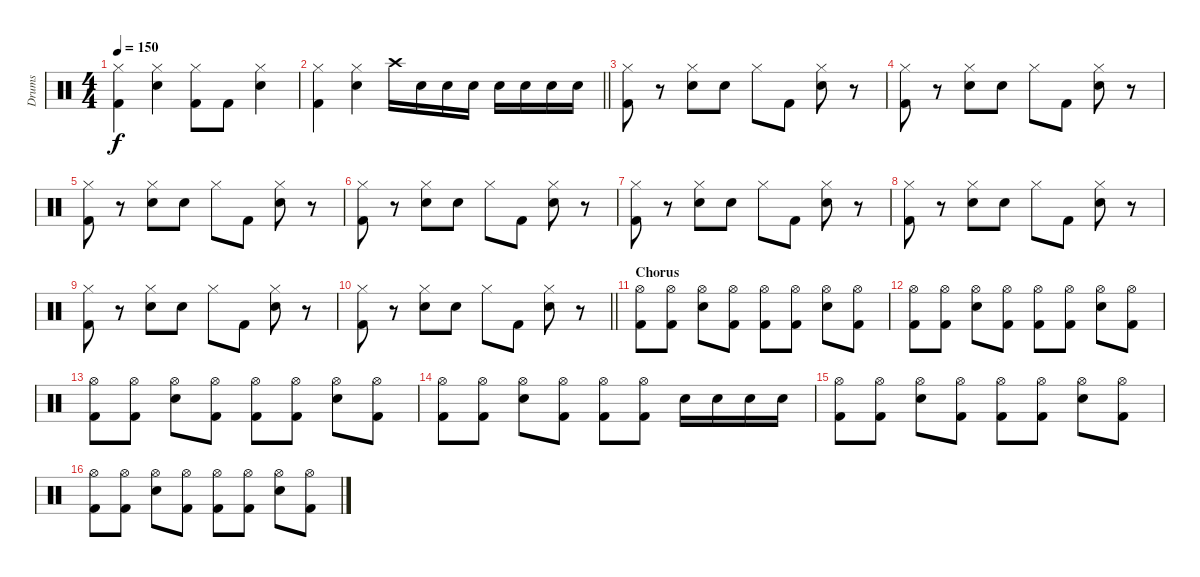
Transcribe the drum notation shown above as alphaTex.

\track ("Drums" "Drums") {instrument percussion}
\staff {score}
\articulation defaults
\ts (4 4)
\tempo 150
\clef neutral
\ks c
("Hi-Hat (closed)" "Kick (hit) 2").4{dy f} ("Snare (hit) 2" "Hi-Hat (closed)").4 ("Hi-Hat (closed)" "Kick (hit) 2").8 "Kick (hit) 2".8 ("Snare (hit) 2" "Hi-Hat (closed)").4 |
\barLineRight lightlight
("Hi-Hat (closed)" "Kick (hit) 2").4 ("Snare (hit) 2" "Hi-Hat (closed)").4 "Crash high (hit)".16 "Snare (hit) 2".16 "Snare (hit) 2".16 "Snare (hit) 2".16 "Snare (hit) 2".16 "Snare (hit) 2".16 "Snare (hit) 2".16 "Snare (hit) 2".16 |
("Hi-Hat (closed)" "Kick (hit) 2").8 r.8 ("Snare (hit) 2" "Hi-Hat (closed)").8 "Snare (hit) 2".8 "Hi-Hat (closed)".8 "Kick (hit) 2".8 ("Snare (hit) 2" "Hi-Hat (closed)").8 r.8 |
("Hi-Hat (closed)" "Kick (hit) 2").8 r.8 ("Snare (hit) 2" "Hi-Hat (closed)").8 "Snare (hit) 2".8 "Hi-Hat (closed)".8 "Kick (hit) 2".8 ("Snare (hit) 2" "Hi-Hat (closed)").8 r.8 |
("Hi-Hat (closed)" "Kick (hit) 2").8 r.8 ("Snare (hit) 2" "Hi-Hat (closed)").8 "Snare (hit) 2".8 "Hi-Hat (closed)".8 "Kick (hit) 2".8 ("Snare (hit) 2" "Hi-Hat (closed)").8 r.8 |
("Hi-Hat (closed)" "Kick (hit) 2").8 r.8 ("Snare (hit) 2" "Hi-Hat (closed)").8 "Snare (hit) 2".8 "Hi-Hat (closed)".8 "Kick (hit) 2".8 ("Snare (hit) 2" "Hi-Hat (closed)").8 r.8 |
("Hi-Hat (closed)" "Kick (hit) 2").8 r.8 ("Snare (hit) 2" "Hi-Hat (closed)").8 "Snare (hit) 2".8 "Hi-Hat (closed)".8 "Kick (hit) 2".8 ("Snare (hit) 2" "Hi-Hat (closed)").8 r.8 |
("Hi-Hat (closed)" "Kick (hit) 2").8 r.8 ("Snare (hit) 2" "Hi-Hat (closed)").8 "Snare (hit) 2".8 "Hi-Hat (closed)".8 "Kick (hit) 2".8 ("Snare (hit) 2" "Hi-Hat (closed)").8 r.8 |
("Hi-Hat (closed)" "Kick (hit) 2").8 r.8 ("Snare (hit) 2" "Hi-Hat (closed)").8 "Snare (hit) 2".8 "Hi-Hat (closed)".8 "Kick (hit) 2".8 ("Snare (hit) 2" "Hi-Hat (closed)").8 r.8 |
\barLineRight lightlight
("Hi-Hat (closed)" "Kick (hit) 2").8 r.8 ("Snare (hit) 2" "Hi-Hat (closed)").8 "Snare (hit) 2".8 "Hi-Hat (closed)".8 "Kick (hit) 2".8 ("Snare (hit) 2" "Hi-Hat (closed)").8 r.8 |
\section ("" "Chorus")
("Hi-Hat (open)" "Kick (hit) 2").8 ("Hi-Hat (open)" "Kick (hit) 2").8 ("Snare (hit) 2" "Hi-Hat (open)").8 ("Hi-Hat (open)" "Kick (hit) 2").8 ("Hi-Hat (open)" "Kick (hit) 2").8 ("Hi-Hat (open)" "Kick (hit) 2").8 ("Snare (hit) 2" "Hi-Hat (open)").8 ("Hi-Hat (open)" "Kick (hit) 2").8 |
("Hi-Hat (open)" "Kick (hit) 2").8 ("Hi-Hat (open)" "Kick (hit) 2").8 ("Snare (hit) 2" "Hi-Hat (open)").8 ("Hi-Hat (open)" "Kick (hit) 2").8 ("Hi-Hat (open)" "Kick (hit) 2").8 ("Hi-Hat (open)" "Kick (hit) 2").8 ("Snare (hit) 2" "Hi-Hat (open)").8 ("Hi-Hat (open)" "Kick (hit) 2").8 |
("Hi-Hat (open)" "Kick (hit) 2").8 ("Hi-Hat (open)" "Kick (hit) 2").8 ("Snare (hit) 2" "Hi-Hat (open)").8 ("Hi-Hat (open)" "Kick (hit) 2").8 ("Hi-Hat (open)" "Kick (hit) 2").8 ("Hi-Hat (open)" "Kick (hit) 2").8 ("Snare (hit) 2" "Hi-Hat (open)").8 ("Hi-Hat (open)" "Kick (hit) 2").8 |
("Hi-Hat (open)" "Kick (hit) 2").8 ("Hi-Hat (open)" "Kick (hit) 2").8 ("Snare (hit) 2" "Hi-Hat (open)").8 ("Hi-Hat (open)" "Kick (hit) 2").8 ("Hi-Hat (open)" "Kick (hit) 2").8 ("Hi-Hat (open)" "Kick (hit) 2").8 "Snare (hit) 2".16 "Snare (hit) 2".16 "Snare (hit) 2".16 "Snare (hit) 2".16 |
("Hi-Hat (open)" "Kick (hit) 2").8 ("Hi-Hat (open)" "Kick (hit) 2").8 ("Snare (hit) 2" "Hi-Hat (open)").8 ("Hi-Hat (open)" "Kick (hit) 2").8 ("Hi-Hat (open)" "Kick (hit) 2").8 ("Hi-Hat (open)" "Kick (hit) 2").8 ("Snare (hit) 2" "Hi-Hat (open)").8 ("Hi-Hat (open)" "Kick (hit) 2").8 |
("Hi-Hat (open)" "Kick (hit) 2").8 ("Hi-Hat (open)" "Kick (hit) 2").8 ("Snare (hit) 2" "Hi-Hat (open)").8 ("Hi-Hat (open)" "Kick (hit) 2").8 ("Hi-Hat (open)" "Kick (hit) 2").8 ("Hi-Hat (open)" "Kick (hit) 2").8 ("Snare (hit) 2" "Hi-Hat (open)").8 ("Hi-Hat (open)" "Kick (hit) 2").8
